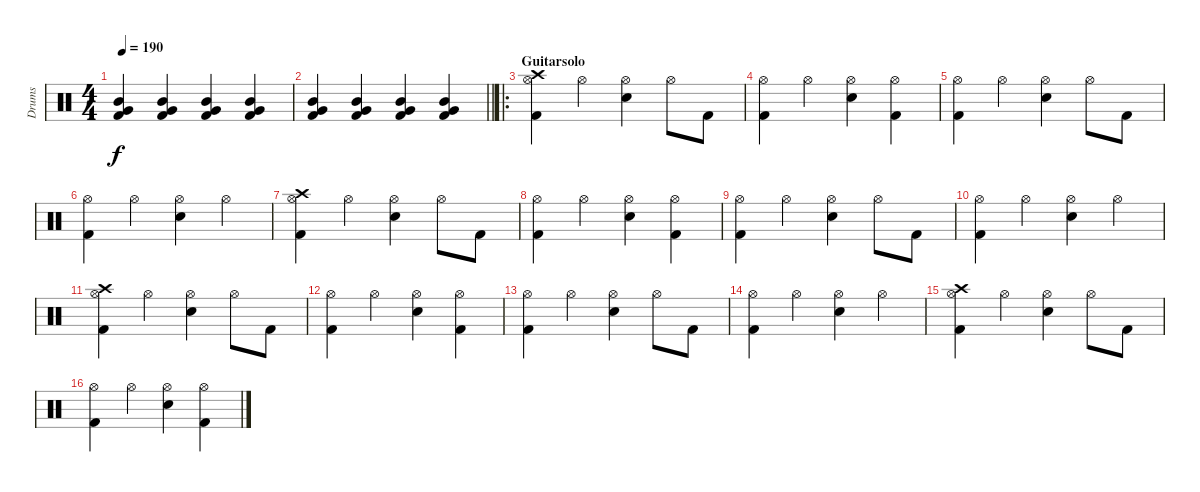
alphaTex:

\track ("Drums" "Drums") {instrument percussion}
\staff {score}
\articulation defaults
\ts (4 4)
\tempo 190
\clef neutral
\ks c
("Very Low Tom (hit)" "Mid Tom (hit)" "Kick (hit) 2").4{dy f} ("Very Low Tom (hit)" "Mid Tom (hit)" "Kick (hit) 2").4 ("Very Low Tom (hit)" "Mid Tom (hit)" "Kick (hit) 2").4 ("Very Low Tom (hit)" "Mid Tom (hit)" "Kick (hit) 2").4 |
\barLineRight lightlight
("Very Low Tom (hit)" "Mid Tom (hit)" "Kick (hit) 2").4 ("Very Low Tom (hit)" "Mid Tom (hit)" "Kick (hit) 2").4 ("Very Low Tom (hit)" "Mid Tom (hit)" "Kick (hit) 2").4 ("Very Low Tom (hit)" "Mid Tom (hit)" "Kick (hit) 2").4 |
\ro
\section ("" "Guitarsolo")
("Crash high (hit)" "Hi-Hat (open)" "Kick (hit) 2").4 "Hi-Hat (open)".4 ("Hi-Hat (open)" "Snare (hit) 2").4 "Hi-Hat (open)".8 "Kick (hit) 2".8 |
("Hi-Hat (open)" "Kick (hit) 2").4 "Hi-Hat (open)".4 ("Hi-Hat (open)" "Snare (hit) 2").4 ("Hi-Hat (open)" "Kick (hit) 2").4 |
("Hi-Hat (open)" "Kick (hit) 2").4 "Hi-Hat (open)".4 ("Hi-Hat (open)" "Snare (hit) 2").4 "Hi-Hat (open)".8 "Kick (hit) 2".8 |
("Hi-Hat (open)" "Kick (hit) 2").4 "Hi-Hat (open)".4 ("Hi-Hat (open)" "Snare (hit) 2").4 "Hi-Hat (open)".4 |
("Crash high (hit)" "Hi-Hat (open)" "Kick (hit) 2").4 "Hi-Hat (open)".4 ("Hi-Hat (open)" "Snare (hit) 2").4 "Hi-Hat (open)".8 "Kick (hit) 2".8 |
("Hi-Hat (open)" "Kick (hit) 2").4 "Hi-Hat (open)".4 ("Hi-Hat (open)" "Snare (hit) 2").4 ("Hi-Hat (open)" "Kick (hit) 2").4 |
("Hi-Hat (open)" "Kick (hit) 2").4 "Hi-Hat (open)".4 ("Hi-Hat (open)" "Snare (hit) 2").4 "Hi-Hat (open)".8 "Kick (hit) 2".8 |
("Hi-Hat (open)" "Kick (hit) 2").4 "Hi-Hat (open)".4 ("Hi-Hat (open)" "Snare (hit) 2").4 "Hi-Hat (open)".4 |
("Crash high (hit)" "Hi-Hat (open)" "Kick (hit) 2").4 "Hi-Hat (open)".4 ("Hi-Hat (open)" "Snare (hit) 2").4 "Hi-Hat (open)".8 "Kick (hit) 2".8 |
("Hi-Hat (open)" "Kick (hit) 2").4 "Hi-Hat (open)".4 ("Hi-Hat (open)" "Snare (hit) 2").4 ("Hi-Hat (open)" "Kick (hit) 2").4 |
("Hi-Hat (open)" "Kick (hit) 2").4 "Hi-Hat (open)".4 ("Hi-Hat (open)" "Snare (hit) 2").4 "Hi-Hat (open)".8 "Kick (hit) 2".8 |
("Hi-Hat (open)" "Kick (hit) 2").4 "Hi-Hat (open)".4 ("Hi-Hat (open)" "Snare (hit) 2").4 "Hi-Hat (open)".4 |
("Crash high (hit)" "Hi-Hat (open)" "Kick (hit) 2").4 "Hi-Hat (open)".4 ("Hi-Hat (open)" "Snare (hit) 2").4 "Hi-Hat (open)".8 "Kick (hit) 2".8 |
("Hi-Hat (open)" "Kick (hit) 2").4 "Hi-Hat (open)".4 ("Hi-Hat (open)" "Snare (hit) 2").4 ("Hi-Hat (open)" "Kick (hit) 2").4
